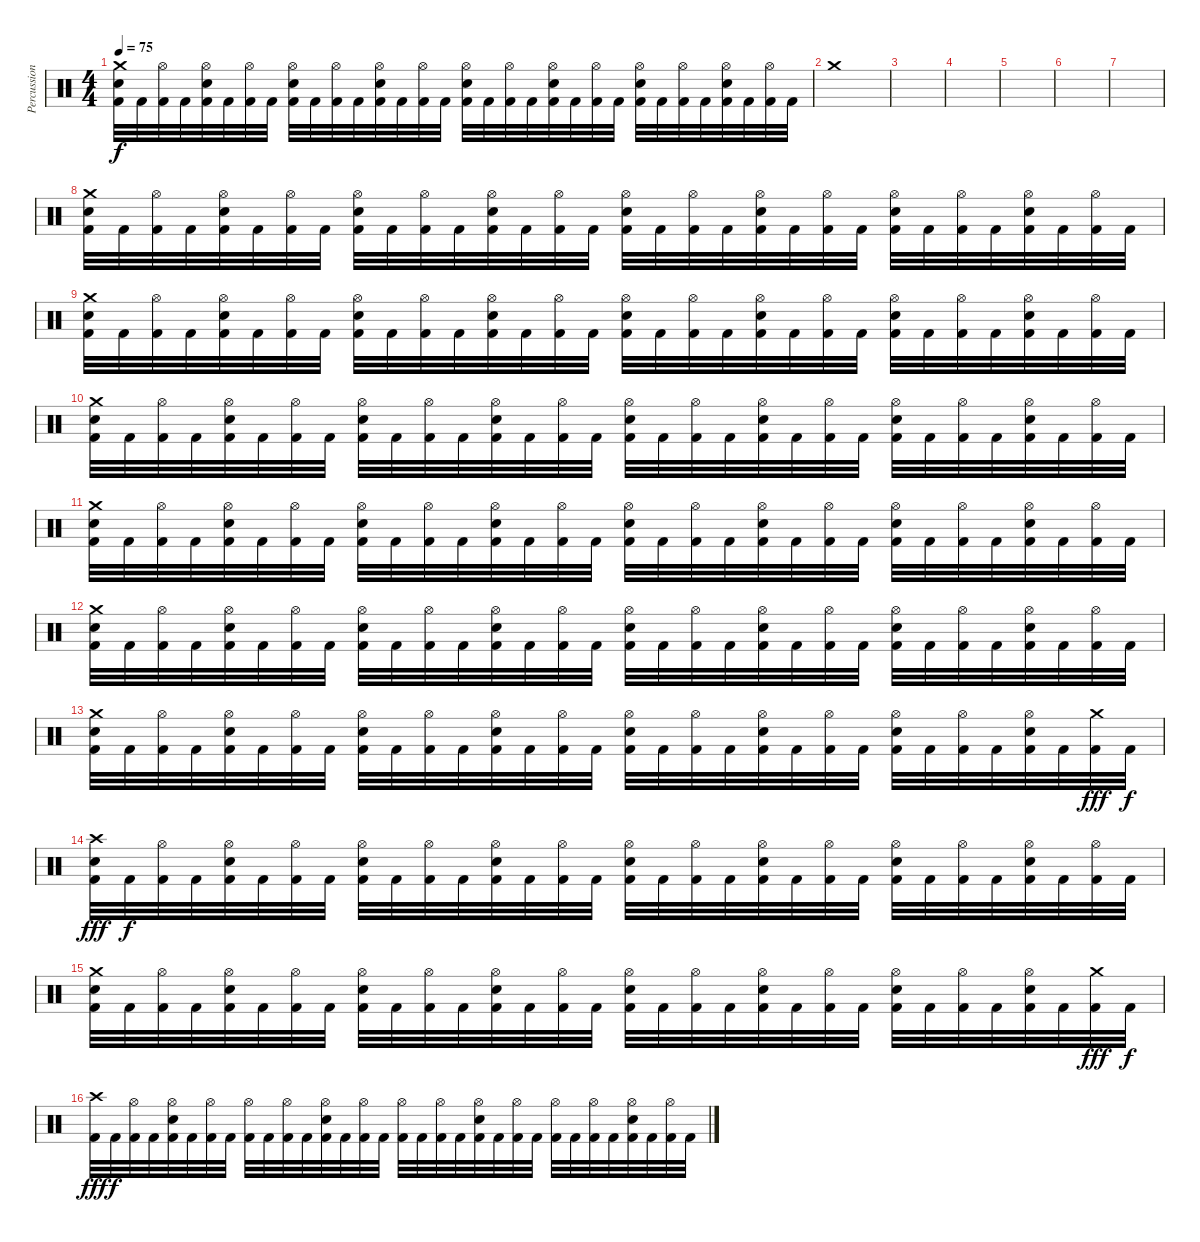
\track ("Percussion" "Percussion") {instrument percussion}
\staff {score}
\articulation defaults
\ts (4 4)
\tempo 75
\clef neutral
\ks c
("Crash medium (hit)" "Electric Snare (hit)" "Kick (hit) 2").32{dy f} "Kick (hit) 2".32 ("Hi-Hat (open)" "Kick (hit) 2").32 "Kick (hit) 2".32 ("Hi-Hat (open)" "Electric Snare (hit)" "Kick (hit) 2").32 "Kick (hit) 2".32 ("Hi-Hat (open)" "Kick (hit) 2").32 "Kick (hit) 2".32 ("Hi-Hat (open)" "Electric Snare (hit)" "Kick (hit) 2").32 "Kick (hit) 2".32 ("Hi-Hat (open)" "Kick (hit) 2").32 "Kick (hit) 2".32 ("Hi-Hat (open)" "Electric Snare (hit)" "Kick (hit) 2").32 "Kick (hit) 2".32 ("Hi-Hat (open)" "Kick (hit) 2").32 "Kick (hit) 2".32 ("Hi-Hat (open)" "Electric Snare (hit)" "Kick (hit) 2").32 "Kick (hit) 2".32 ("Hi-Hat (open)" "Kick (hit) 2").32 "Kick (hit) 2".32 ("Hi-Hat (open)" "Electric Snare (hit)" "Kick (hit) 2").32 "Kick (hit) 2".32 ("Hi-Hat (open)" "Kick (hit) 2").32 "Kick (hit) 2".32 ("Hi-Hat (open)" "Electric Snare (hit)" "Kick (hit) 2").32 "Kick (hit) 2".32 ("Hi-Hat (open)" "Kick (hit) 2").32 "Kick (hit) 2".32 ("Hi-Hat (open)" "Electric Snare (hit)" "Kick (hit) 2").32 "Kick (hit) 2".32 ("Hi-Hat (open)" "Kick (hit) 2").32 "Kick (hit) 2".32 |
"Crash medium (hit)".1 |
|
|
|
|
|
("Crash medium (hit)" "Electric Snare (hit)" "Kick (hit) 2").32 "Kick (hit) 2".32 ("Hi-Hat (open)" "Kick (hit) 2").32 "Kick (hit) 2".32 ("Hi-Hat (open)" "Electric Snare (hit)" "Kick (hit) 2").32 "Kick (hit) 2".32 ("Hi-Hat (open)" "Kick (hit) 2").32 "Kick (hit) 2".32 ("Hi-Hat (open)" "Electric Snare (hit)" "Kick (hit) 2").32 "Kick (hit) 2".32 ("Hi-Hat (open)" "Kick (hit) 2").32 "Kick (hit) 2".32 ("Hi-Hat (open)" "Electric Snare (hit)" "Kick (hit) 2").32 "Kick (hit) 2".32 ("Hi-Hat (open)" "Kick (hit) 2").32 "Kick (hit) 2".32 ("Hi-Hat (open)" "Electric Snare (hit)" "Kick (hit) 2").32 "Kick (hit) 2".32 ("Hi-Hat (open)" "Kick (hit) 2").32 "Kick (hit) 2".32 ("Hi-Hat (open)" "Electric Snare (hit)" "Kick (hit) 2").32 "Kick (hit) 2".32 ("Hi-Hat (open)" "Kick (hit) 2").32 "Kick (hit) 2".32 ("Hi-Hat (open)" "Electric Snare (hit)" "Kick (hit) 2").32 "Kick (hit) 2".32 ("Hi-Hat (open)" "Kick (hit) 2").32 "Kick (hit) 2".32 ("Hi-Hat (open)" "Electric Snare (hit)" "Kick (hit) 2").32 "Kick (hit) 2".32 ("Hi-Hat (open)" "Kick (hit) 2").32 "Kick (hit) 2".32 |
("Crash medium (hit)" "Electric Snare (hit)" "Kick (hit) 2").32 "Kick (hit) 2".32 ("Hi-Hat (open)" "Kick (hit) 2").32 "Kick (hit) 2".32 ("Hi-Hat (open)" "Electric Snare (hit)" "Kick (hit) 2").32 "Kick (hit) 2".32 ("Hi-Hat (open)" "Kick (hit) 2").32 "Kick (hit) 2".32 ("Hi-Hat (open)" "Electric Snare (hit)" "Kick (hit) 2").32 "Kick (hit) 2".32 ("Hi-Hat (open)" "Kick (hit) 2").32 "Kick (hit) 2".32 ("Hi-Hat (open)" "Electric Snare (hit)" "Kick (hit) 2").32 "Kick (hit) 2".32 ("Hi-Hat (open)" "Kick (hit) 2").32 "Kick (hit) 2".32 ("Hi-Hat (open)" "Electric Snare (hit)" "Kick (hit) 2").32 "Kick (hit) 2".32 ("Hi-Hat (open)" "Kick (hit) 2").32 "Kick (hit) 2".32 ("Hi-Hat (open)" "Electric Snare (hit)" "Kick (hit) 2").32 "Kick (hit) 2".32 ("Hi-Hat (open)" "Kick (hit) 2").32 "Kick (hit) 2".32 ("Hi-Hat (open)" "Electric Snare (hit)" "Kick (hit) 2").32 "Kick (hit) 2".32 ("Hi-Hat (open)" "Kick (hit) 2").32 "Kick (hit) 2".32 ("Hi-Hat (open)" "Electric Snare (hit)" "Kick (hit) 2").32 "Kick (hit) 2".32 ("Hi-Hat (open)" "Kick (hit) 2").32 "Kick (hit) 2".32 |
("Crash medium (hit)" "Electric Snare (hit)" "Kick (hit) 2").32 "Kick (hit) 2".32 ("Hi-Hat (open)" "Kick (hit) 2").32 "Kick (hit) 2".32 ("Hi-Hat (open)" "Electric Snare (hit)" "Kick (hit) 2").32 "Kick (hit) 2".32 ("Hi-Hat (open)" "Kick (hit) 2").32 "Kick (hit) 2".32 ("Hi-Hat (open)" "Electric Snare (hit)" "Kick (hit) 2").32 "Kick (hit) 2".32 ("Hi-Hat (open)" "Kick (hit) 2").32 "Kick (hit) 2".32 ("Hi-Hat (open)" "Electric Snare (hit)" "Kick (hit) 2").32 "Kick (hit) 2".32 ("Hi-Hat (open)" "Kick (hit) 2").32 "Kick (hit) 2".32 ("Hi-Hat (open)" "Electric Snare (hit)" "Kick (hit) 2").32 "Kick (hit) 2".32 ("Hi-Hat (open)" "Kick (hit) 2").32 "Kick (hit) 2".32 ("Hi-Hat (open)" "Electric Snare (hit)" "Kick (hit) 2").32 "Kick (hit) 2".32 ("Hi-Hat (open)" "Kick (hit) 2").32 "Kick (hit) 2".32 ("Hi-Hat (open)" "Electric Snare (hit)" "Kick (hit) 2").32 "Kick (hit) 2".32 ("Hi-Hat (open)" "Kick (hit) 2").32 "Kick (hit) 2".32 ("Hi-Hat (open)" "Electric Snare (hit)" "Kick (hit) 2").32 "Kick (hit) 2".32 ("Hi-Hat (open)" "Kick (hit) 2").32 "Kick (hit) 2".32 |
("Crash medium (hit)" "Electric Snare (hit)" "Kick (hit) 2").32 "Kick (hit) 2".32 ("Hi-Hat (open)" "Kick (hit) 2").32 "Kick (hit) 2".32 ("Hi-Hat (open)" "Electric Snare (hit)" "Kick (hit) 2").32 "Kick (hit) 2".32 ("Hi-Hat (open)" "Kick (hit) 2").32 "Kick (hit) 2".32 ("Hi-Hat (open)" "Electric Snare (hit)" "Kick (hit) 2").32 "Kick (hit) 2".32 ("Hi-Hat (open)" "Kick (hit) 2").32 "Kick (hit) 2".32 ("Hi-Hat (open)" "Electric Snare (hit)" "Kick (hit) 2").32 "Kick (hit) 2".32 ("Hi-Hat (open)" "Kick (hit) 2").32 "Kick (hit) 2".32 ("Hi-Hat (open)" "Electric Snare (hit)" "Kick (hit) 2").32 "Kick (hit) 2".32 ("Hi-Hat (open)" "Kick (hit) 2").32 "Kick (hit) 2".32 ("Hi-Hat (open)" "Electric Snare (hit)" "Kick (hit) 2").32 "Kick (hit) 2".32 ("Hi-Hat (open)" "Kick (hit) 2").32 "Kick (hit) 2".32 ("Hi-Hat (open)" "Electric Snare (hit)" "Kick (hit) 2").32 "Kick (hit) 2".32 ("Hi-Hat (open)" "Kick (hit) 2").32 "Kick (hit) 2".32 ("Hi-Hat (open)" "Electric Snare (hit)" "Kick (hit) 2").32 "Kick (hit) 2".32 ("Hi-Hat (open)" "Kick (hit) 2").32 "Kick (hit) 2".32 |
("Crash medium (hit)" "Electric Snare (hit)" "Kick (hit) 2").32 "Kick (hit) 2".32 ("Hi-Hat (open)" "Kick (hit) 2").32 "Kick (hit) 2".32 ("Hi-Hat (open)" "Electric Snare (hit)" "Kick (hit) 2").32 "Kick (hit) 2".32 ("Hi-Hat (open)" "Kick (hit) 2").32 "Kick (hit) 2".32 ("Hi-Hat (open)" "Electric Snare (hit)" "Kick (hit) 2").32 "Kick (hit) 2".32 ("Hi-Hat (open)" "Kick (hit) 2").32 "Kick (hit) 2".32 ("Hi-Hat (open)" "Electric Snare (hit)" "Kick (hit) 2").32 "Kick (hit) 2".32 ("Hi-Hat (open)" "Kick (hit) 2").32 "Kick (hit) 2".32 ("Hi-Hat (open)" "Electric Snare (hit)" "Kick (hit) 2").32 "Kick (hit) 2".32 ("Hi-Hat (open)" "Kick (hit) 2").32 "Kick (hit) 2".32 ("Hi-Hat (open)" "Electric Snare (hit)" "Kick (hit) 2").32 "Kick (hit) 2".32 ("Hi-Hat (open)" "Kick (hit) 2").32 "Kick (hit) 2".32 ("Hi-Hat (open)" "Electric Snare (hit)" "Kick (hit) 2").32 "Kick (hit) 2".32 ("Hi-Hat (open)" "Kick (hit) 2").32 "Kick (hit) 2".32 ("Hi-Hat (open)" "Electric Snare (hit)" "Kick (hit) 2").32 "Kick (hit) 2".32 ("Hi-Hat (open)" "Kick (hit) 2").32 "Kick (hit) 2".32 |
("Crash medium (hit)" "Electric Snare (hit)" "Kick (hit) 2").32 "Kick (hit) 2".32 ("Hi-Hat (open)" "Kick (hit) 2").32 "Kick (hit) 2".32 ("Hi-Hat (open)" "Electric Snare (hit)" "Kick (hit) 2").32 "Kick (hit) 2".32 ("Hi-Hat (open)" "Kick (hit) 2").32 "Kick (hit) 2".32 ("Hi-Hat (open)" "Electric Snare (hit)" "Kick (hit) 2").32 "Kick (hit) 2".32 ("Hi-Hat (open)" "Kick (hit) 2").32 "Kick (hit) 2".32 ("Hi-Hat (open)" "Electric Snare (hit)" "Kick (hit) 2").32 "Kick (hit) 2".32 ("Hi-Hat (open)" "Kick (hit) 2").32 "Kick (hit) 2".32 ("Hi-Hat (open)" "Electric Snare (hit)" "Kick (hit) 2").32 "Kick (hit) 2".32 ("Hi-Hat (open)" "Kick (hit) 2").32 "Kick (hit) 2".32 ("Hi-Hat (open)" "Electric Snare (hit)" "Kick (hit) 2").32 "Kick (hit) 2".32 ("Hi-Hat (open)" "Kick (hit) 2").32 "Kick (hit) 2".32 ("Hi-Hat (open)" "Electric Snare (hit)" "Kick (hit) 2").32 "Kick (hit) 2".32 ("Hi-Hat (open)" "Kick (hit) 2").32 "Kick (hit) 2".32 ("Hi-Hat (open)" "Electric Snare (hit)" "Kick (hit) 2").32 "Kick (hit) 2".32 ("Crash medium (hit)" "Kick (hit) 2").32{dy fff} "Kick (hit) 2".32{dy f} |
("Crash high (hit)" "Electric Snare (hit)" "Kick (hit) 2").32{dy fff} "Kick (hit) 2".32{dy f} ("Hi-Hat (open)" "Kick (hit) 2").32 "Kick (hit) 2".32 ("Hi-Hat (open)" "Electric Snare (hit)" "Kick (hit) 2").32 "Kick (hit) 2".32 ("Hi-Hat (open)" "Kick (hit) 2").32 "Kick (hit) 2".32 ("Hi-Hat (open)" "Electric Snare (hit)" "Kick (hit) 2").32 "Kick (hit) 2".32 ("Hi-Hat (open)" "Kick (hit) 2").32 "Kick (hit) 2".32 ("Hi-Hat (open)" "Electric Snare (hit)" "Kick (hit) 2").32 "Kick (hit) 2".32 ("Hi-Hat (open)" "Kick (hit) 2").32 "Kick (hit) 2".32 ("Hi-Hat (open)" "Electric Snare (hit)" "Kick (hit) 2").32 "Kick (hit) 2".32 ("Hi-Hat (open)" "Kick (hit) 2").32 "Kick (hit) 2".32 ("Hi-Hat (open)" "Electric Snare (hit)" "Kick (hit) 2").32 "Kick (hit) 2".32 ("Hi-Hat (open)" "Kick (hit) 2").32 "Kick (hit) 2".32 ("Hi-Hat (open)" "Electric Snare (hit)" "Kick (hit) 2").32 "Kick (hit) 2".32 ("Hi-Hat (open)" "Kick (hit) 2").32 "Kick (hit) 2".32 ("Hi-Hat (open)" "Electric Snare (hit)" "Kick (hit) 2").32 "Kick (hit) 2".32 ("Hi-Hat (open)" "Kick (hit) 2").32 "Kick (hit) 2".32 |
("Crash medium (hit)" "Electric Snare (hit)" "Kick (hit) 2").32 "Kick (hit) 2".32 ("Hi-Hat (open)" "Kick (hit) 2").32 "Kick (hit) 2".32 ("Hi-Hat (open)" "Electric Snare (hit)" "Kick (hit) 2").32 "Kick (hit) 2".32 ("Hi-Hat (open)" "Kick (hit) 2").32 "Kick (hit) 2".32 ("Hi-Hat (open)" "Electric Snare (hit)" "Kick (hit) 2").32 "Kick (hit) 2".32 ("Hi-Hat (open)" "Kick (hit) 2").32 "Kick (hit) 2".32 ("Hi-Hat (open)" "Electric Snare (hit)" "Kick (hit) 2").32 "Kick (hit) 2".32 ("Hi-Hat (open)" "Kick (hit) 2").32 "Kick (hit) 2".32 ("Hi-Hat (open)" "Electric Snare (hit)" "Kick (hit) 2").32 "Kick (hit) 2".32 ("Hi-Hat (open)" "Kick (hit) 2").32 "Kick (hit) 2".32 ("Hi-Hat (open)" "Electric Snare (hit)" "Kick (hit) 2").32 "Kick (hit) 2".32 ("Hi-Hat (open)" "Kick (hit) 2").32 "Kick (hit) 2".32 ("Hi-Hat (open)" "Electric Snare (hit)" "Kick (hit) 2").32 "Kick (hit) 2".32 ("Hi-Hat (open)" "Kick (hit) 2").32 "Kick (hit) 2".32 ("Hi-Hat (open)" "Electric Snare (hit)" "Kick (hit) 2").32 "Kick (hit) 2".32 ("Crash medium (hit)" "Kick (hit) 2").32{dy fff} "Kick (hit) 2".32{dy f} |
("Crash high (hit)" "Kick (hit) 2").32{dy fff} "Kick (hit) 2".32{dy f} ("Hi-Hat (open)" "Kick (hit) 2").32 "Kick (hit) 2".32 ("Hi-Hat (open)" "Electric Snare (hit)" "Kick (hit) 2").32 "Kick (hit) 2".32 ("Hi-Hat (open)" "Kick (hit) 2").32 "Kick (hit) 2".32 ("Hi-Hat (open)" "Kick (hit) 2").32 "Kick (hit) 2".32 ("Hi-Hat (open)" "Kick (hit) 2").32 "Kick (hit) 2".32 ("Hi-Hat (open)" "Electric Snare (hit)" "Kick (hit) 2").32 "Kick (hit) 2".32 ("Hi-Hat (open)" "Kick (hit) 2").32 "Kick (hit) 2".32 ("Hi-Hat (open)" "Kick (hit) 2").32 "Kick (hit) 2".32 ("Hi-Hat (open)" "Kick (hit) 2").32 "Kick (hit) 2".32 ("Hi-Hat (open)" "Electric Snare (hit)" "Kick (hit) 2").32 "Kick (hit) 2".32 ("Hi-Hat (open)" "Kick (hit) 2").32 "Kick (hit) 2".32 ("Hi-Hat (open)" "Kick (hit) 2").32 "Kick (hit) 2".32 ("Hi-Hat (open)" "Kick (hit) 2").32 "Kick (hit) 2".32 ("Hi-Hat (open)" "Electric Snare (hit)" "Kick (hit) 2").32 "Kick (hit) 2".32 ("Hi-Hat (open)" "Kick (hit) 2").32 "Kick (hit) 2".32
